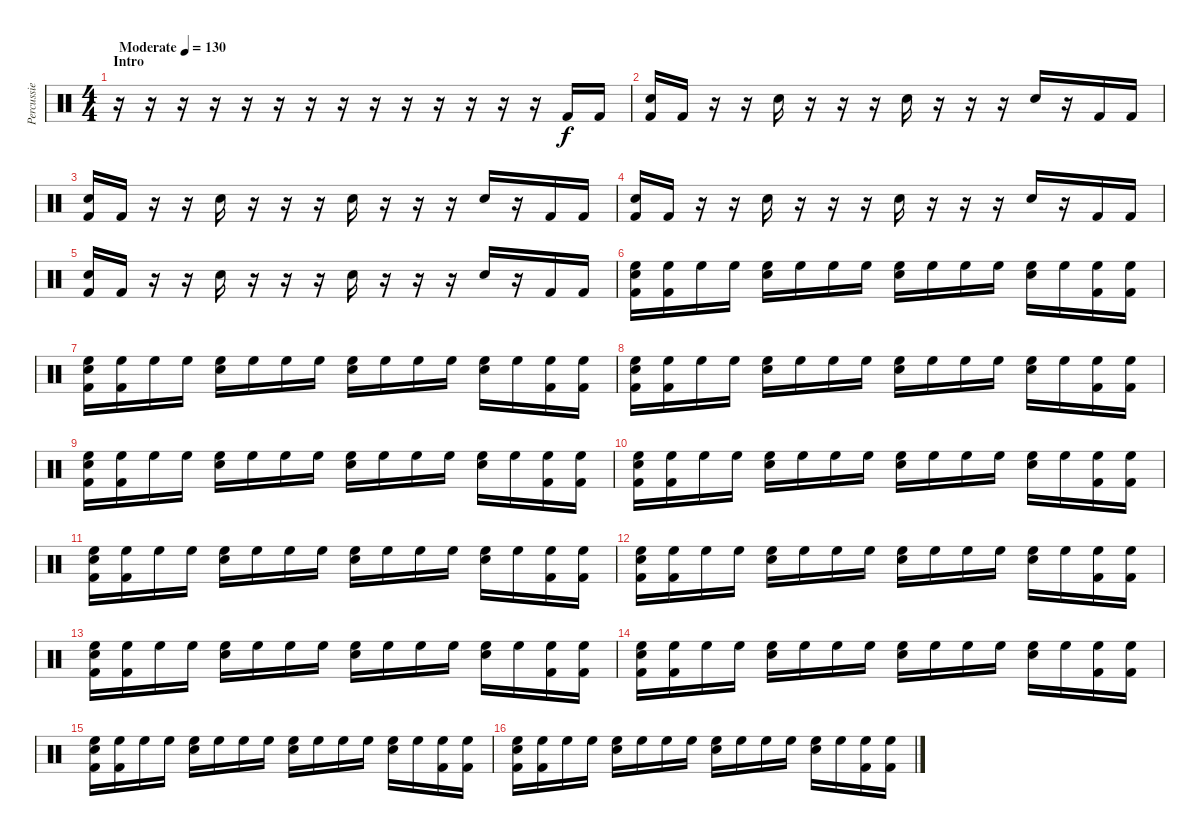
\track ("Percussie" "Percussie") {instrument percussion}
\staff {score}
\articulation defaults
\ts (4 4)
\section ("" "Intro")
\tempo (130 "Moderate")
\clef neutral
\ks c
r.16{dy f} r.16 r.16 r.16 r.16 r.16 r.16 r.16 r.16 r.16 r.16 r.16 r.16 r.16 "Kick (hit) 2".16 "Kick (hit) 2".16 |
("Electric Snare (hit)" "Kick (hit) 2").16 "Kick (hit) 2".16 r.16 r.16 "Electric Snare (hit)".16 r.16 r.16 r.16 "Electric Snare (hit)".16 r.16 r.16 r.16 "Electric Snare (hit)".16 r.16 "Kick (hit) 2".16 "Kick (hit) 2".16 |
("Electric Snare (hit)" "Kick (hit) 2").16 "Kick (hit) 2".16 r.16 r.16 "Electric Snare (hit)".16 r.16 r.16 r.16 "Electric Snare (hit)".16 r.16 r.16 r.16 "Electric Snare (hit)".16 r.16 "Kick (hit) 2".16 "Kick (hit) 2".16 |
("Electric Snare (hit)" "Kick (hit) 2").16 "Kick (hit) 2".16 r.16 r.16 "Electric Snare (hit)".16 r.16 r.16 r.16 "Electric Snare (hit)".16 r.16 r.16 r.16 "Electric Snare (hit)".16 r.16 "Kick (hit) 2".16 "Kick (hit) 2".16 |
("Electric Snare (hit)" "Kick (hit) 2").16 "Kick (hit) 2".16 r.16 r.16 "Electric Snare (hit)".16 r.16 r.16 r.16 "Electric Snare (hit)".16 r.16 r.16 r.16 "Electric Snare (hit)".16 r.16 "Kick (hit) 2".16 "Kick (hit) 2".16 |
("High Floor Tom (hit)" "Electric Snare (hit)" "Kick (hit) 2").16 ("High Floor Tom (hit)" "Kick (hit) 2").16 "High Floor Tom (hit)".16 "High Floor Tom (hit)".16 ("High Floor Tom (hit)" "Electric Snare (hit)").16 "High Floor Tom (hit)".16 "High Floor Tom (hit)".16 "High Floor Tom (hit)".16 ("High Floor Tom (hit)" "Electric Snare (hit)").16 "High Floor Tom (hit)".16 "High Floor Tom (hit)".16 "High Floor Tom (hit)".16 ("High Floor Tom (hit)" "Electric Snare (hit)").16 "High Floor Tom (hit)".16 ("High Floor Tom (hit)" "Kick (hit) 2").16 ("High Floor Tom (hit)" "Kick (hit) 2").16 |
("High Floor Tom (hit)" "Electric Snare (hit)" "Kick (hit) 2").16 ("High Floor Tom (hit)" "Kick (hit) 2").16 "High Floor Tom (hit)".16 "High Floor Tom (hit)".16 ("High Floor Tom (hit)" "Electric Snare (hit)").16 "High Floor Tom (hit)".16 "High Floor Tom (hit)".16 "High Floor Tom (hit)".16 ("High Floor Tom (hit)" "Electric Snare (hit)").16 "High Floor Tom (hit)".16 "High Floor Tom (hit)".16 "High Floor Tom (hit)".16 ("High Floor Tom (hit)" "Electric Snare (hit)").16 "High Floor Tom (hit)".16 ("High Floor Tom (hit)" "Kick (hit) 2").16 ("High Floor Tom (hit)" "Kick (hit) 2").16 |
("High Floor Tom (hit)" "Electric Snare (hit)" "Kick (hit) 2").16 ("High Floor Tom (hit)" "Kick (hit) 2").16 "High Floor Tom (hit)".16 "High Floor Tom (hit)".16 ("High Floor Tom (hit)" "Electric Snare (hit)").16 "High Floor Tom (hit)".16 "High Floor Tom (hit)".16 "High Floor Tom (hit)".16 ("High Floor Tom (hit)" "Electric Snare (hit)").16 "High Floor Tom (hit)".16 "High Floor Tom (hit)".16 "High Floor Tom (hit)".16 ("High Floor Tom (hit)" "Electric Snare (hit)").16 "High Floor Tom (hit)".16 ("High Floor Tom (hit)" "Kick (hit) 2").16 ("High Floor Tom (hit)" "Kick (hit) 2").16 |
("High Floor Tom (hit)" "Electric Snare (hit)" "Kick (hit) 2").16 ("High Floor Tom (hit)" "Kick (hit) 2").16 "High Floor Tom (hit)".16 "High Floor Tom (hit)".16 ("High Floor Tom (hit)" "Electric Snare (hit)").16 "High Floor Tom (hit)".16 "High Floor Tom (hit)".16 "High Floor Tom (hit)".16 ("High Floor Tom (hit)" "Electric Snare (hit)").16 "High Floor Tom (hit)".16 "High Floor Tom (hit)".16 "High Floor Tom (hit)".16 ("High Floor Tom (hit)" "Electric Snare (hit)").16 "High Floor Tom (hit)".16 ("High Floor Tom (hit)" "Kick (hit) 2").16 ("High Floor Tom (hit)" "Kick (hit) 2").16 |
("High Floor Tom (hit)" "Electric Snare (hit)" "Kick (hit) 2").16 ("High Floor Tom (hit)" "Kick (hit) 2").16 "High Floor Tom (hit)".16 "High Floor Tom (hit)".16 ("High Floor Tom (hit)" "Electric Snare (hit)").16 "High Floor Tom (hit)".16 "High Floor Tom (hit)".16 "High Floor Tom (hit)".16 ("High Floor Tom (hit)" "Electric Snare (hit)").16 "High Floor Tom (hit)".16 "High Floor Tom (hit)".16 "High Floor Tom (hit)".16 ("High Floor Tom (hit)" "Electric Snare (hit)").16 "High Floor Tom (hit)".16 ("High Floor Tom (hit)" "Kick (hit) 2").16 ("High Floor Tom (hit)" "Kick (hit) 2").16 |
("High Floor Tom (hit)" "Electric Snare (hit)" "Kick (hit) 2").16 ("High Floor Tom (hit)" "Kick (hit) 2").16 "High Floor Tom (hit)".16 "High Floor Tom (hit)".16 ("High Floor Tom (hit)" "Electric Snare (hit)").16 "High Floor Tom (hit)".16 "High Floor Tom (hit)".16 "High Floor Tom (hit)".16 ("High Floor Tom (hit)" "Electric Snare (hit)").16 "High Floor Tom (hit)".16 "High Floor Tom (hit)".16 "High Floor Tom (hit)".16 ("High Floor Tom (hit)" "Electric Snare (hit)").16 "High Floor Tom (hit)".16 ("High Floor Tom (hit)" "Kick (hit) 2").16 ("High Floor Tom (hit)" "Kick (hit) 2").16 |
("High Floor Tom (hit)" "Electric Snare (hit)" "Kick (hit) 2").16 ("High Floor Tom (hit)" "Kick (hit) 2").16 "High Floor Tom (hit)".16 "High Floor Tom (hit)".16 ("High Floor Tom (hit)" "Electric Snare (hit)").16 "High Floor Tom (hit)".16 "High Floor Tom (hit)".16 "High Floor Tom (hit)".16 ("High Floor Tom (hit)" "Electric Snare (hit)").16 "High Floor Tom (hit)".16 "High Floor Tom (hit)".16 "High Floor Tom (hit)".16 ("High Floor Tom (hit)" "Electric Snare (hit)").16 "High Floor Tom (hit)".16 ("High Floor Tom (hit)" "Kick (hit) 2").16 ("High Floor Tom (hit)" "Kick (hit) 2").16 |
("High Floor Tom (hit)" "Electric Snare (hit)" "Kick (hit) 2").16 ("High Floor Tom (hit)" "Kick (hit) 2").16 "High Floor Tom (hit)".16 "High Floor Tom (hit)".16 ("High Floor Tom (hit)" "Electric Snare (hit)").16 "High Floor Tom (hit)".16 "High Floor Tom (hit)".16 "High Floor Tom (hit)".16 ("High Floor Tom (hit)" "Electric Snare (hit)").16 "High Floor Tom (hit)".16 "High Floor Tom (hit)".16 "High Floor Tom (hit)".16 ("High Floor Tom (hit)" "Electric Snare (hit)").16 "High Floor Tom (hit)".16 ("High Floor Tom (hit)" "Kick (hit) 2").16 ("High Floor Tom (hit)" "Kick (hit) 2").16 |
("High Floor Tom (hit)" "Electric Snare (hit)" "Kick (hit) 2").16 ("High Floor Tom (hit)" "Kick (hit) 2").16 "High Floor Tom (hit)".16 "High Floor Tom (hit)".16 ("High Floor Tom (hit)" "Electric Snare (hit)").16 "High Floor Tom (hit)".16 "High Floor Tom (hit)".16 "High Floor Tom (hit)".16 ("High Floor Tom (hit)" "Electric Snare (hit)").16 "High Floor Tom (hit)".16 "High Floor Tom (hit)".16 "High Floor Tom (hit)".16 ("High Floor Tom (hit)" "Electric Snare (hit)").16 "High Floor Tom (hit)".16 ("High Floor Tom (hit)" "Kick (hit) 2").16 ("High Floor Tom (hit)" "Kick (hit) 2").16 |
("High Floor Tom (hit)" "Electric Snare (hit)" "Kick (hit) 2").16 ("High Floor Tom (hit)" "Kick (hit) 2").16 "High Floor Tom (hit)".16 "High Floor Tom (hit)".16 ("High Floor Tom (hit)" "Electric Snare (hit)").16 "High Floor Tom (hit)".16 "High Floor Tom (hit)".16 "High Floor Tom (hit)".16 ("High Floor Tom (hit)" "Electric Snare (hit)").16 "High Floor Tom (hit)".16 "High Floor Tom (hit)".16 "High Floor Tom (hit)".16 ("High Floor Tom (hit)" "Electric Snare (hit)").16 "High Floor Tom (hit)".16 ("High Floor Tom (hit)" "Kick (hit) 2").16 ("High Floor Tom (hit)" "Kick (hit) 2").16 |
("High Floor Tom (hit)" "Electric Snare (hit)" "Kick (hit) 2").16 ("High Floor Tom (hit)" "Kick (hit) 2").16 "High Floor Tom (hit)".16 "High Floor Tom (hit)".16 ("High Floor Tom (hit)" "Electric Snare (hit)").16 "High Floor Tom (hit)".16 "High Floor Tom (hit)".16 "High Floor Tom (hit)".16 ("High Floor Tom (hit)" "Electric Snare (hit)").16 "High Floor Tom (hit)".16 "High Floor Tom (hit)".16 "High Floor Tom (hit)".16 ("High Floor Tom (hit)" "Electric Snare (hit)").16 "High Floor Tom (hit)".16 ("High Floor Tom (hit)" "Kick (hit) 2").16 ("High Floor Tom (hit)" "Kick (hit) 2").16
